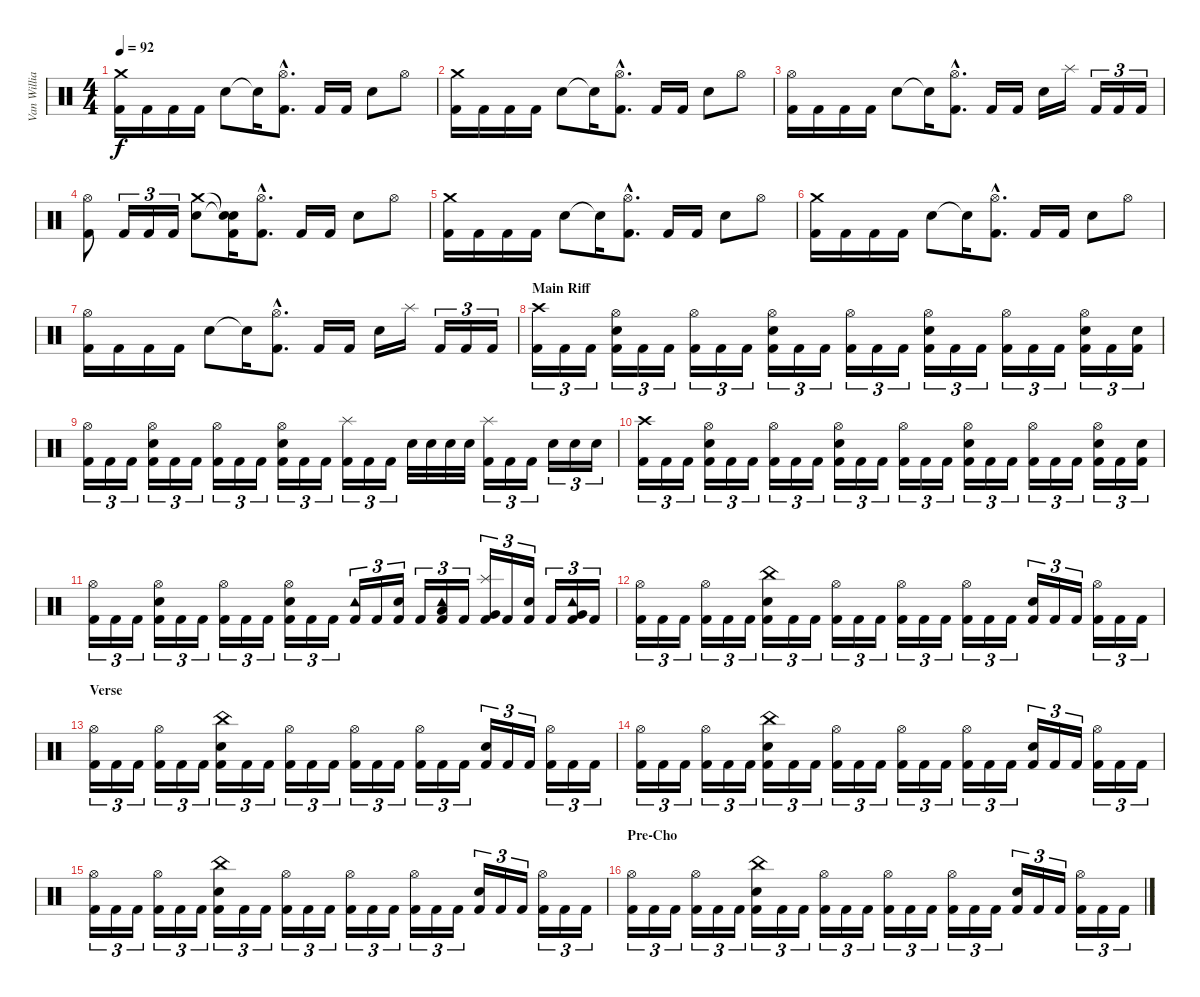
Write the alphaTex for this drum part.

\track ("Van Williams" "Van Willia") {instrument percussion}
\staff {score}
\articulation defaults
\ts (4 4)
\tempo 92
\clef neutral
\ks c
("Crash medium (hit)" "Kick (hit) 2").16{dy f} "Kick (hit) 2".16 "Kick (hit) 2".16 "Kick (hit) 2".16 "Electric Snare (hit)".8 "Snare (hit)"{t}.16 ("Hi-Hat (open)"{hac} "Kick (hit) 2"{hac}).8{d} "Kick (hit) 2".16 "Kick (hit) 2".16 "Electric Snare (hit)".8 "Hi-Hat (open)".8 |
("Crash medium (hit)" "Kick (hit) 2").16 "Kick (hit) 2".16 "Kick (hit) 2".16 "Kick (hit) 2".16 "Electric Snare (hit)".8 "Snare (hit)"{t}.16 ("Hi-Hat (open)"{hac} "Kick (hit) 2"{hac}).8{d} "Kick (hit) 2".16 "Kick (hit) 2".16 "Electric Snare (hit)".8 "Hi-Hat (open)".8 |
("Hi-Hat (open)" "Kick (hit) 2").16 "Kick (hit) 2".16 "Kick (hit) 2".16 "Kick (hit) 2".16 "Electric Snare (hit)".8 "Snare (hit)"{t}.16 ("Hi-Hat (open)"{hac} "Kick (hit) 2"{hac}).8{d} "Kick (hit) 2".16 "Kick (hit) 2".16 "Electric Snare (hit)".16 "Splash (hit)".16 "Kick (hit) 2".16{tu (3 2)} "Kick (hit) 2".16{tu (3 2)} "Kick (hit) 2".16{tu (3 2)} |
("Hi-Hat (open)" "Kick (hit) 2").8 "Kick (hit) 2".16{tu (3 2)} "Kick (hit) 2".16{tu (3 2)} "Kick (hit) 2".16{tu (3 2)} ("Crash medium (hit)" "Electric Snare (hit)").8 ("Snare (hit)"{t} "Snare (hit)"{t} "Kick (hit) 2").16 ("Hi-Hat (open)"{hac} "Kick (hit) 2"{hac}).8{d} "Kick (hit) 2".16 "Kick (hit) 2".16 "Electric Snare (hit)".8 "Hi-Hat (open)".8 |
("Crash medium (hit)" "Kick (hit) 2").16 "Kick (hit) 2".16 "Kick (hit) 2".16 "Kick (hit) 2".16 "Electric Snare (hit)".8 "Snare (hit)"{t}.16 ("Hi-Hat (open)"{hac} "Kick (hit) 2"{hac}).8{d} "Kick (hit) 2".16 "Kick (hit) 2".16 "Electric Snare (hit)".8 "Hi-Hat (open)".8 |
("Crash medium (hit)" "Kick (hit) 2").16 "Kick (hit) 2".16 "Kick (hit) 2".16 "Kick (hit) 2".16 "Electric Snare (hit)".8 "Snare (hit)"{t}.16 ("Hi-Hat (open)"{hac} "Kick (hit) 2"{hac}).8{d} "Kick (hit) 2".16 "Kick (hit) 2".16 "Electric Snare (hit)".8 "Hi-Hat (open)".8 |
("Hi-Hat (open)" "Kick (hit) 2").16 "Kick (hit) 2".16 "Kick (hit) 2".16 "Kick (hit) 2".16 "Electric Snare (hit)".8 "Snare (hit)"{t}.16 ("Hi-Hat (open)"{hac} "Kick (hit) 2"{hac}).8{d} "Kick (hit) 2".16 "Kick (hit) 2".16 "Electric Snare (hit)".16 "Splash (hit)".16 "Kick (hit) 2".16{tu (3 2)} "Kick (hit) 2".16{tu (3 2)} "Kick (hit) 2".16{tu (3 2)} |
\section ("" "Main Riff")
("Crash high (hit)" "Kick (hit) 2").16{tu (3 2)} "Kick (hit) 2".16{tu (3 2)} "Kick (hit) 2".16{tu (3 2)} ("Hi-Hat (open)" "Electric Snare (hit)" "Kick (hit) 2").16{tu (3 2)} "Kick (hit) 2".16{tu (3 2)} "Kick (hit) 2".16{tu (3 2)} ("Hi-Hat (open)" "Kick (hit) 2").16{tu (3 2)} "Kick (hit) 2".16{tu (3 2)} "Kick (hit) 2".16{tu (3 2)} ("Hi-Hat (open)" "Electric Snare (hit)" "Kick (hit) 2").16{tu (3 2)} "Kick (hit) 2".16{tu (3 2)} "Kick (hit) 2".16{tu (3 2)} ("Hi-Hat (open)" "Kick (hit) 2").16{tu (3 2)} "Kick (hit) 2".16{tu (3 2)} "Kick (hit) 2".16{tu (3 2)} ("Hi-Hat (open)" "Electric Snare (hit)" "Kick (hit) 2").16{tu (3 2)} "Kick (hit) 2".16{tu (3 2)} "Kick (hit) 2".16{tu (3 2)} ("Hi-Hat (open)" "Kick (hit) 2").16{tu (3 2)} "Kick (hit) 2".16{tu (3 2)} "Kick (hit) 2".16{tu (3 2)} ("Hi-Hat (open)" "Electric Snare (hit)" "Kick (hit) 2").16{tu (3 2)} "Kick (hit) 2".16{tu (3 2)} ("Electric Snare (hit)" "Kick (hit) 2").16{tu (3 2)} |
("Hi-Hat (open)" "Kick (hit) 2").16{tu (3 2)} "Kick (hit) 2".16{tu (3 2)} "Kick (hit) 2".16{tu (3 2)} ("Hi-Hat (open)" "Electric Snare (hit)" "Kick (hit) 2").16{tu (3 2)} "Kick (hit) 2".16{tu (3 2)} "Kick (hit) 2".16{tu (3 2)} ("Hi-Hat (open)" "Kick (hit) 2").16{tu (3 2)} "Kick (hit) 2".16{tu (3 2)} "Kick (hit) 2".16{tu (3 2)} ("Hi-Hat (open)" "Electric Snare (hit)" "Kick (hit) 2").16{tu (3 2)} "Kick (hit) 2".16{tu (3 2)} "Kick (hit) 2".16{tu (3 2)} ("Splash (hit)" "Kick (hit) 2").16{tu (3 2)} "Kick (hit) 2".16{tu (3 2)} "Kick (hit) 2".16{tu (3 2)} "Electric Snare (hit)".32 "Electric Snare (hit)".32 "Electric Snare (hit)".32 "Electric Snare (hit)".32 ("Splash (hit)" "Kick (hit) 2").16{tu (3 2)} "Kick (hit) 2".16{tu (3 2)} "Kick (hit) 2".16{tu (3 2)} "Electric Snare (hit)".16{tu (3 2)} "Electric Snare (hit)".16{tu (3 2)} "Electric Snare (hit)".16{tu (3 2)} |
("Crash high (hit)" "Kick (hit) 2").16{tu (3 2)} "Kick (hit) 2".16{tu (3 2)} "Kick (hit) 2".16{tu (3 2)} ("Hi-Hat (open)" "Electric Snare (hit)" "Kick (hit) 2").16{tu (3 2)} "Kick (hit) 2".16{tu (3 2)} "Kick (hit) 2".16{tu (3 2)} ("Hi-Hat (open)" "Kick (hit) 2").16{tu (3 2)} "Kick (hit) 2".16{tu (3 2)} "Kick (hit) 2".16{tu (3 2)} ("Hi-Hat (open)" "Electric Snare (hit)" "Kick (hit) 2").16{tu (3 2)} "Kick (hit) 2".16{tu (3 2)} "Kick (hit) 2".16{tu (3 2)} ("Hi-Hat (open)" "Kick (hit) 2").16{tu (3 2)} "Kick (hit) 2".16{tu (3 2)} "Kick (hit) 2".16{tu (3 2)} ("Hi-Hat (open)" "Electric Snare (hit)" "Kick (hit) 2").16{tu (3 2)} "Kick (hit) 2".16{tu (3 2)} "Kick (hit) 2".16{tu (3 2)} ("Hi-Hat (open)" "Kick (hit) 2").16{tu (3 2)} "Kick (hit) 2".16{tu (3 2)} "Kick (hit) 2".16{tu (3 2)} ("Hi-Hat (open)" "Electric Snare (hit)" "Kick (hit) 2").16{tu (3 2)} "Kick (hit) 2".16{tu (3 2)} ("Electric Snare (hit)" "Kick (hit) 2").16{tu (3 2)} |
("Hi-Hat (open)" "Kick (hit) 2").16{tu (3 2)} "Kick (hit) 2".16{tu (3 2)} "Kick (hit) 2".16{tu (3 2)} ("Hi-Hat (open)" "Electric Snare (hit)" "Kick (hit) 2").16{tu (3 2)} "Kick (hit) 2".16{tu (3 2)} "Kick (hit) 2".16{tu (3 2)} ("Hi-Hat (open)" "Kick (hit) 2").16{tu (3 2)} "Kick (hit) 2".16{tu (3 2)} "Kick (hit) 2".16{tu (3 2)} ("Hi-Hat (open)" "Electric Snare (hit)" "Kick (hit) 2").16{tu (3 2)} "Kick (hit) 2".16{tu (3 2)} "Kick (hit) 2".16{tu (3 2)} ("Tambourine (hit)" "Kick (hit) 2").16{tu (3 2)} "Kick (hit) 2".16{tu (3 2)} ("Electric Snare (hit)" "Kick (hit) 2").16{tu (3 2)} "Kick (hit) 2".16{tu (3 2)} ("Tambourine (hit)" "Low Tom (hit)" "Kick (hit) 2").16{tu (3 2)} "Kick (hit) 2".16{tu (3 2)} ("Splash (hit)" "Very Low Tom (hit)" "Kick (hit) 2").16{tu (3 2)} "Kick (hit) 2".16{tu (3 2)} ("Electric Snare (hit)" "Kick (hit) 2").16{tu (3 2)} "Kick (hit) 2".16{tu (3 2)} ("Tambourine (hit)" "Very Low Tom (hit)" "Kick (hit) 2").16{tu (3 2)} "Kick (hit) 2".16{tu (3 2)} |
("Hi-Hat (open)" "Kick (hit) 2").16{tu (3 2)} "Kick (hit) 2".16{tu (3 2)} "Kick (hit) 2".16{tu (3 2)} ("Hi-Hat (open)" "Kick (hit) 2").16{tu (3 2)} "Kick (hit) 2".16{tu (3 2)} "Kick (hit) 2".16{tu (3 2)} ("China (hit)" "Electric Snare (hit)" "Kick (hit) 2").16{tu (3 2)} "Kick (hit) 2".16{tu (3 2)} "Kick (hit) 2".16{tu (3 2)} ("Hi-Hat (open)" "Kick (hit) 2").16{tu (3 2)} "Kick (hit) 2".16{tu (3 2)} "Kick (hit) 2".16{tu (3 2)} ("Hi-Hat (open)" "Kick (hit) 2").16{tu (3 2)} "Kick (hit) 2".16{tu (3 2)} "Kick (hit) 2".16{tu (3 2)} ("Hi-Hat (open)" "Kick (hit) 2").16{tu (3 2)} "Kick (hit) 2".16{tu (3 2)} "Kick (hit) 2".16{tu (3 2)} ("Electric Snare (hit)" "Kick (hit) 2").16{tu (3 2)} "Kick (hit) 2".16{tu (3 2)} "Kick (hit) 2".16{tu (3 2)} ("Hi-Hat (open)" "Kick (hit) 2").16{tu (3 2)} "Kick (hit) 2".16{tu (3 2)} "Kick (hit) 2".16{tu (3 2)} |
\section ("" "Verse")
("Hi-Hat (open)" "Kick (hit) 2").16{tu (3 2)} "Kick (hit) 2".16{tu (3 2)} "Kick (hit) 2".16{tu (3 2)} ("Hi-Hat (open)" "Kick (hit) 2").16{tu (3 2)} "Kick (hit) 2".16{tu (3 2)} "Kick (hit) 2".16{tu (3 2)} ("China (hit)" "Electric Snare (hit)" "Kick (hit) 2").16{tu (3 2)} "Kick (hit) 2".16{tu (3 2)} "Kick (hit) 2".16{tu (3 2)} ("Hi-Hat (open)" "Kick (hit) 2").16{tu (3 2)} "Kick (hit) 2".16{tu (3 2)} "Kick (hit) 2".16{tu (3 2)} ("Hi-Hat (open)" "Kick (hit) 2").16{tu (3 2)} "Kick (hit) 2".16{tu (3 2)} "Kick (hit) 2".16{tu (3 2)} ("Hi-Hat (open)" "Kick (hit) 2").16{tu (3 2)} "Kick (hit) 2".16{tu (3 2)} "Kick (hit) 2".16{tu (3 2)} ("Electric Snare (hit)" "Kick (hit) 2").16{tu (3 2)} "Kick (hit) 2".16{tu (3 2)} "Kick (hit) 2".16{tu (3 2)} ("Hi-Hat (open)" "Kick (hit) 2").16{tu (3 2)} "Kick (hit) 2".16{tu (3 2)} "Kick (hit) 2".16{tu (3 2)} |
("Hi-Hat (open)" "Kick (hit) 2").16{tu (3 2)} "Kick (hit) 2".16{tu (3 2)} "Kick (hit) 2".16{tu (3 2)} ("Hi-Hat (open)" "Kick (hit) 2").16{tu (3 2)} "Kick (hit) 2".16{tu (3 2)} "Kick (hit) 2".16{tu (3 2)} ("China (hit)" "Electric Snare (hit)" "Kick (hit) 2").16{tu (3 2)} "Kick (hit) 2".16{tu (3 2)} "Kick (hit) 2".16{tu (3 2)} ("Hi-Hat (open)" "Kick (hit) 2").16{tu (3 2)} "Kick (hit) 2".16{tu (3 2)} "Kick (hit) 2".16{tu (3 2)} ("Hi-Hat (open)" "Kick (hit) 2").16{tu (3 2)} "Kick (hit) 2".16{tu (3 2)} "Kick (hit) 2".16{tu (3 2)} ("Hi-Hat (open)" "Kick (hit) 2").16{tu (3 2)} "Kick (hit) 2".16{tu (3 2)} "Kick (hit) 2".16{tu (3 2)} ("Electric Snare (hit)" "Kick (hit) 2").16{tu (3 2)} "Kick (hit) 2".16{tu (3 2)} "Kick (hit) 2".16{tu (3 2)} ("Hi-Hat (open)" "Kick (hit) 2").16{tu (3 2)} "Kick (hit) 2".16{tu (3 2)} "Kick (hit) 2".16{tu (3 2)} |
("Hi-Hat (open)" "Kick (hit) 2").16{tu (3 2)} "Kick (hit) 2".16{tu (3 2)} "Kick (hit) 2".16{tu (3 2)} ("Hi-Hat (open)" "Kick (hit) 2").16{tu (3 2)} "Kick (hit) 2".16{tu (3 2)} "Kick (hit) 2".16{tu (3 2)} ("China (hit)" "Electric Snare (hit)" "Kick (hit) 2").16{tu (3 2)} "Kick (hit) 2".16{tu (3 2)} "Kick (hit) 2".16{tu (3 2)} ("Hi-Hat (open)" "Kick (hit) 2").16{tu (3 2)} "Kick (hit) 2".16{tu (3 2)} "Kick (hit) 2".16{tu (3 2)} ("Hi-Hat (open)" "Kick (hit) 2").16{tu (3 2)} "Kick (hit) 2".16{tu (3 2)} "Kick (hit) 2".16{tu (3 2)} ("Hi-Hat (open)" "Kick (hit) 2").16{tu (3 2)} "Kick (hit) 2".16{tu (3 2)} "Kick (hit) 2".16{tu (3 2)} ("Electric Snare (hit)" "Kick (hit) 2").16{tu (3 2)} "Kick (hit) 2".16{tu (3 2)} "Kick (hit) 2".16{tu (3 2)} ("Hi-Hat (open)" "Kick (hit) 2").16{tu (3 2)} "Kick (hit) 2".16{tu (3 2)} "Kick (hit) 2".16{tu (3 2)} |
\section ("" "Pre-Cho")
("Hi-Hat (open)" "Kick (hit) 2").16{tu (3 2)} "Kick (hit) 2".16{tu (3 2)} "Kick (hit) 2".16{tu (3 2)} ("Hi-Hat (open)" "Kick (hit) 2").16{tu (3 2)} "Kick (hit) 2".16{tu (3 2)} "Kick (hit) 2".16{tu (3 2)} ("China (hit)" "Electric Snare (hit)" "Kick (hit) 2").16{tu (3 2)} "Kick (hit) 2".16{tu (3 2)} "Kick (hit) 2".16{tu (3 2)} ("Hi-Hat (open)" "Kick (hit) 2").16{tu (3 2)} "Kick (hit) 2".16{tu (3 2)} "Kick (hit) 2".16{tu (3 2)} ("Hi-Hat (open)" "Kick (hit) 2").16{tu (3 2)} "Kick (hit) 2".16{tu (3 2)} "Kick (hit) 2".16{tu (3 2)} ("Hi-Hat (open)" "Kick (hit) 2").16{tu (3 2)} "Kick (hit) 2".16{tu (3 2)} "Kick (hit) 2".16{tu (3 2)} ("Electric Snare (hit)" "Kick (hit) 2").16{tu (3 2)} "Kick (hit) 2".16{tu (3 2)} "Kick (hit) 2".16{tu (3 2)} ("Hi-Hat (open)" "Kick (hit) 2").16{tu (3 2)} "Kick (hit) 2".16{tu (3 2)} "Kick (hit) 2".16{tu (3 2)}
